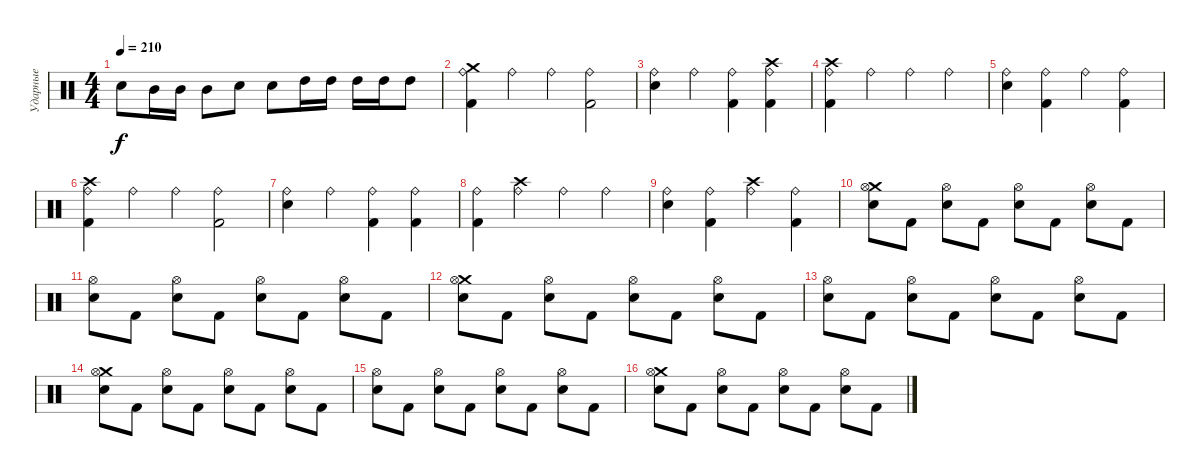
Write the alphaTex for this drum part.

\track ("Ударные" "Ударные") {instrument percussion}
\staff {score}
\articulation defaults
\ts (4 4)
\tempo 210
\clef neutral
\ks c "Electric Snare (hit)".8{dy f} "Mid Tom (hit)".16 "Mid Tom (hit)".16 "Mid Tom (hit)".8 "Electric Snare (hit)".8 "Electric Snare (hit)".8 "High Tom (hit)".16 "High Tom (hit)".16 "High Tom (hit)".16 "High Tom (hit)".16 "High Tom (hit)".8
|
("Crash medium (hit)" "Ride (bell)" "Kick (hit) 2").4 "Ride (bell)".4 "Ride (bell)".4 ("Ride (bell)" "Kick (hit) 2").2 |
("Ride (bell)" "Electric Snare (hit)").4 "Ride (bell)".4 ("Ride (bell)" "Kick (hit) 2").4 ("Crash high (hit)" "Ride (bell)" "Kick (hit) 2").4 |
("Crash high (hit)" "Ride (bell)" "Kick (hit) 2").4 "Ride (bell)".4 "Ride (bell)".4 "Ride (bell)".4 |
("Ride (bell)" "Electric Snare (hit)").4 ("Ride (bell)" "Kick (hit) 2").4 "Ride (bell)".4 ("Ride (bell)" "Kick (hit) 2").4 |
("Crash high (hit)" "Ride (bell)" "Kick (hit) 2").4 "Ride (bell)".4 "Ride (bell)".4 ("Ride (bell)" "Kick (hit) 2").2 |
("Ride (bell)" "Electric Snare (hit)").4 "Ride (bell)".4 ("Ride (bell)" "Kick (hit) 2").4 ("Ride (bell)" "Kick (hit) 2").4 |
("Ride (bell)" "Kick (hit) 2").4 ("Crash high (hit)" "Ride (bell)").4 "Ride (bell)".4 "Ride (bell)".4 |
("Ride (bell)" "Electric Snare (hit)").4 ("Ride (bell)" "Kick (hit) 2").4 ("Crash high (hit)" "Ride (bell)").4 ("Ride (bell)" "Kick (hit) 2").4 |
("Crash medium (hit)" "Hi-Hat (open)" "Electric Snare (hit)").8 "Kick (hit) 2".8 ("Hi-Hat (open)" "Electric Snare (hit)").8 "Kick (hit) 2".8 ("Hi-Hat (open)" "Electric Snare (hit)").8 "Kick (hit) 2".8 ("Hi-Hat (open)" "Electric Snare (hit)").8 "Kick (hit) 2".8 |
("Hi-Hat (open)" "Electric Snare (hit)").8 "Kick (hit) 2".8 ("Hi-Hat (open)" "Electric Snare (hit)").8 "Kick (hit) 2".8 ("Hi-Hat (open)" "Electric Snare (hit)").8 "Kick (hit) 2".8 ("Hi-Hat (open)" "Electric Snare (hit)").8 "Kick (hit) 2".8 |
("Crash medium (hit)" "Hi-Hat (open)" "Electric Snare (hit)").8 "Kick (hit) 2".8 ("Hi-Hat (open)" "Electric Snare (hit)").8 "Kick (hit) 2".8 ("Hi-Hat (open)" "Electric Snare (hit)").8 "Kick (hit) 2".8 ("Hi-Hat (open)" "Electric Snare (hit)").8 "Kick (hit) 2".8 |
("Hi-Hat (open)" "Electric Snare (hit)").8 "Kick (hit) 2".8 ("Hi-Hat (open)" "Electric Snare (hit)").8 "Kick (hit) 2".8 ("Hi-Hat (open)" "Electric Snare (hit)").8 "Kick (hit) 2".8 ("Hi-Hat (open)" "Electric Snare (hit)").8 "Kick (hit) 2".8 |
("Crash medium (hit)" "Hi-Hat (open)" "Electric Snare (hit)").8 "Kick (hit) 2".8 ("Hi-Hat (open)" "Electric Snare (hit)").8 "Kick (hit) 2".8 ("Hi-Hat (open)" "Electric Snare (hit)").8 "Kick (hit) 2".8 ("Hi-Hat (open)" "Electric Snare (hit)").8 "Kick (hit) 2".8 |
("Hi-Hat (open)" "Electric Snare (hit)").8 "Kick (hit) 2".8 ("Hi-Hat (open)" "Electric Snare (hit)").8 "Kick (hit) 2".8 ("Hi-Hat (open)" "Electric Snare (hit)").8 "Kick (hit) 2".8 ("Hi-Hat (open)" "Electric Snare (hit)").8 "Kick (hit) 2".8 |
("Crash medium (hit)" "Hi-Hat (open)" "Electric Snare (hit)").8 "Kick (hit) 2".8 ("Hi-Hat (open)" "Electric Snare (hit)").8 "Kick (hit) 2".8 ("Hi-Hat (open)" "Electric Snare (hit)").8 "Kick (hit) 2".8 ("Hi-Hat (open)" "Electric Snare (hit)").8 "Kick (hit) 2".8
